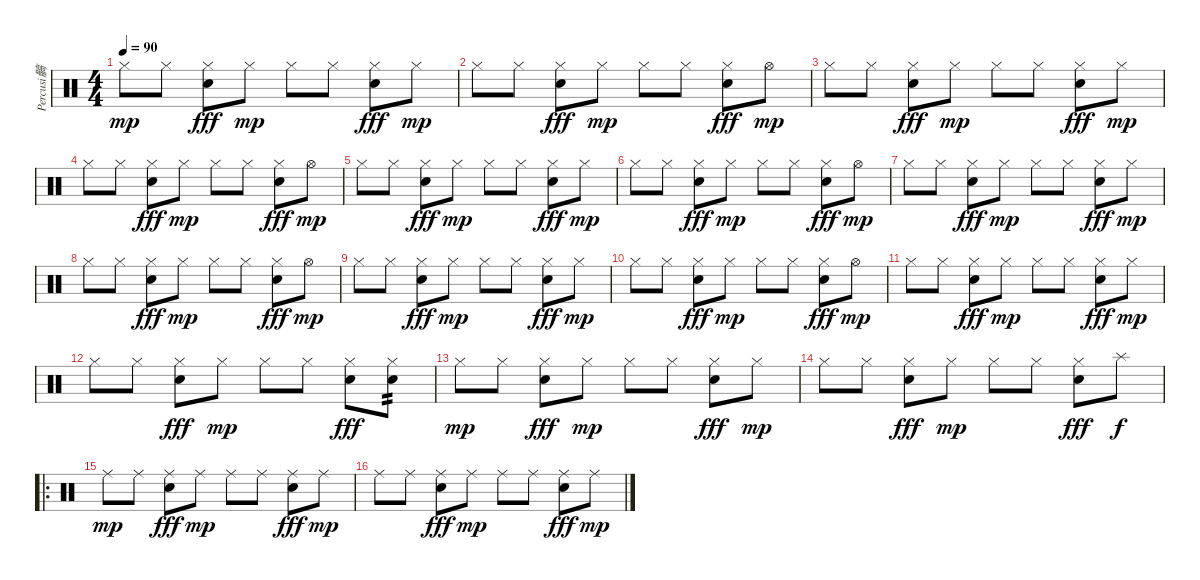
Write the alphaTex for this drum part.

\track ("Percusi髇" "Percusi髇") {instrument percussion}
\staff {score}
\articulation defaults
\ts (4 4)
\tempo 90
\clef neutral
\ks c "Hi-Hat (closed)".8{dy mp} "Hi-Hat (closed)".8
("Hi-Hat (closed)" "Electric Snare (hit)").8{dy fff} "Hi-Hat (closed)".8{dy mp} "Hi-Hat (closed)".8 "Hi-Hat (closed)".8 ("Hi-Hat (closed)" "Electric Snare (hit)").8{dy fff} "Hi-Hat (closed)".8{dy mp} |
"Hi-Hat (closed)".8 "Hi-Hat (closed)".8 ("Hi-Hat (closed)" "Electric Snare (hit)").8{dy fff} "Hi-Hat (closed)".8{dy mp} "Hi-Hat (closed)".8 "Hi-Hat (closed)".8 ("Hi-Hat (closed)" "Electric Snare (hit)").8{dy fff} "Hi-Hat (open)".8{dy mp} |
"Hi-Hat (closed)".8 "Hi-Hat (closed)".8 ("Hi-Hat (closed)" "Electric Snare (hit)").8{dy fff} "Hi-Hat (closed)".8{dy mp} "Hi-Hat (closed)".8 "Hi-Hat (closed)".8 ("Hi-Hat (closed)" "Electric Snare (hit)").8{dy fff} "Hi-Hat (closed)".8{dy mp} |
"Hi-Hat (closed)".8 "Hi-Hat (closed)".8 ("Hi-Hat (closed)" "Electric Snare (hit)").8{dy fff} "Hi-Hat (closed)".8{dy mp} "Hi-Hat (closed)".8 "Hi-Hat (closed)".8 ("Hi-Hat (closed)" "Electric Snare (hit)").8{dy fff} "Hi-Hat (open)".8{dy mp} |
"Hi-Hat (closed)".8 "Hi-Hat (closed)".8 ("Hi-Hat (closed)" "Electric Snare (hit)").8{dy fff} "Hi-Hat (closed)".8{dy mp} "Hi-Hat (closed)".8 "Hi-Hat (closed)".8 ("Hi-Hat (closed)" "Electric Snare (hit)").8{dy fff} "Hi-Hat (closed)".8{dy mp} |
"Hi-Hat (closed)".8 "Hi-Hat (closed)".8 ("Hi-Hat (closed)" "Electric Snare (hit)").8{dy fff} "Hi-Hat (closed)".8{dy mp} "Hi-Hat (closed)".8 "Hi-Hat (closed)".8 ("Hi-Hat (closed)" "Electric Snare (hit)").8{dy fff} "Hi-Hat (open)".8{dy mp} |
"Hi-Hat (closed)".8 "Hi-Hat (closed)".8 ("Hi-Hat (closed)" "Electric Snare (hit)").8{dy fff} "Hi-Hat (closed)".8{dy mp} "Hi-Hat (closed)".8 "Hi-Hat (closed)".8 ("Hi-Hat (closed)" "Electric Snare (hit)").8{dy fff} "Hi-Hat (closed)".8{dy mp} |
"Hi-Hat (closed)".8 "Hi-Hat (closed)".8 ("Hi-Hat (closed)" "Electric Snare (hit)").8{dy fff} "Hi-Hat (closed)".8{dy mp} "Hi-Hat (closed)".8 "Hi-Hat (closed)".8 ("Hi-Hat (closed)" "Electric Snare (hit)").8{dy fff} "Hi-Hat (open)".8{dy mp} |
"Hi-Hat (closed)".8 "Hi-Hat (closed)".8 ("Hi-Hat (closed)" "Electric Snare (hit)").8{dy fff} "Hi-Hat (closed)".8{dy mp} "Hi-Hat (closed)".8 "Hi-Hat (closed)".8 ("Hi-Hat (closed)" "Electric Snare (hit)").8{dy fff} "Hi-Hat (closed)".8{dy mp} |
"Hi-Hat (closed)".8 "Hi-Hat (closed)".8 ("Hi-Hat (closed)" "Electric Snare (hit)").8{dy fff} "Hi-Hat (closed)".8{dy mp} "Hi-Hat (closed)".8 "Hi-Hat (closed)".8 ("Hi-Hat (closed)" "Electric Snare (hit)").8{dy fff} "Hi-Hat (open)".8{dy mp} |
"Hi-Hat (closed)".8 "Hi-Hat (closed)".8 ("Hi-Hat (closed)" "Electric Snare (hit)").8{dy fff} "Hi-Hat (closed)".8{dy mp} "Hi-Hat (closed)".8 "Hi-Hat (closed)".8 ("Hi-Hat (closed)" "Electric Snare (hit)").8{dy fff} "Hi-Hat (closed)".8{dy mp} |
"Hi-Hat (closed)".8 "Hi-Hat (closed)".8 ("Hi-Hat (closed)" "Electric Snare (hit)").8{dy fff} "Hi-Hat (closed)".8{dy mp} "Hi-Hat (closed)".8 "Hi-Hat (closed)".8 ("Hi-Hat (closed)" "Electric Snare (hit)").8{dy fff} ("Hi-Hat (closed)" "Electric Snare (hit)").8{tp 2} |
"Hi-Hat (closed)".8{dy mp} "Hi-Hat (closed)".8 ("Hi-Hat (closed)" "Electric Snare (hit)").8{dy fff} "Hi-Hat (closed)".8{dy mp} "Hi-Hat (closed)".8 "Hi-Hat (closed)".8 ("Hi-Hat (closed)" "Electric Snare (hit)").8{dy fff} "Hi-Hat (closed)".8{dy mp} |
"Hi-Hat (closed)".8 "Hi-Hat (closed)".8 ("Hi-Hat (closed)" "Electric Snare (hit)").8{dy fff} "Hi-Hat (closed)".8{dy mp} "Hi-Hat (closed)".8 "Hi-Hat (closed)".8 ("Hi-Hat (closed)" "Electric Snare (hit)").8{dy fff} "Splash (hit)".8{dy f} |
\ro "Ride (middle)".8{dy mp} "Ride (middle)".8
("Ride (middle)" "Electric Snare (hit)").8{dy fff} "Ride (middle)".8{dy mp} "Ride (middle)".8 "Ride (middle)".8 ("Ride (middle)" "Electric Snare (hit)").8{dy fff} "Ride (middle)".8{dy mp} |
"Ride (middle)".8 "Ride (middle)".8 ("Ride (middle)" "Electric Snare (hit)").8{dy fff} "Ride (middle)".8{dy mp} "Ride (middle)".8 "Ride (middle)".8 ("Ride (middle)" "Electric Snare (hit)").8{dy fff} "Ride (middle)".8{dy mp}
